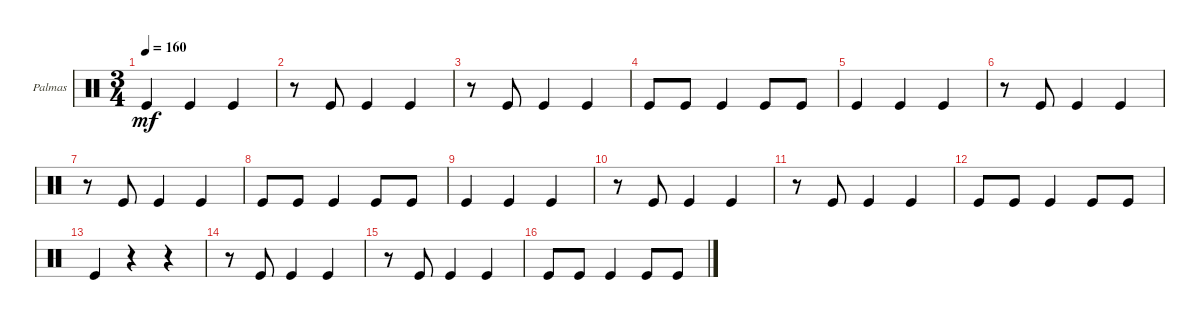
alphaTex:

\defaultSystemsLayout 4
\bracketExtendMode groupsimilarinstruments
\firstSystemTrackNameOrientation horizontal
\otherSystemsTrackNameOrientation horizontal
\track ("Palmas" "Palmas") {instrument percussion}
\staff {score}
\articulation defaults
\ts (3 4)
\tempo 160
\clef neutral
\ks c "Kick (hit)".4{dy mf} "Kick (hit)".4 "Kick (hit)".4
|
r.8 "Kick (hit)".8 "Kick (hit)".4 "Kick (hit)".4 |
r.8 "Kick (hit)".8 "Kick (hit)".4 "Kick (hit)".4 |
"Kick (hit)".8 "Kick (hit)".8 "Kick (hit)".4 "Kick (hit)".8 "Kick (hit)".8 |
"Kick (hit)".4 "Kick (hit)".4 "Kick (hit)".4 |
r.8 "Kick (hit)".8 "Kick (hit)".4 "Kick (hit)".4 |
r.8 "Kick (hit)".8 "Kick (hit)".4 "Kick (hit)".4 |
"Kick (hit)".8 "Kick (hit)".8 "Kick (hit)".4 "Kick (hit)".8 "Kick (hit)".8 |
"Kick (hit)".4 "Kick (hit)".4 "Kick (hit)".4 |
r.8 "Kick (hit)".8 "Kick (hit)".4 "Kick (hit)".4 |
r.8 "Kick (hit)".8 "Kick (hit)".4 "Kick (hit)".4 |
"Kick (hit)".8 "Kick (hit)".8 "Kick (hit)".4 "Kick (hit)".8 "Kick (hit)".8 |
"Kick (hit)".4 r.4 r.4 |
r.8 "Kick (hit)".8 "Kick (hit)".4 "Kick (hit)".4 |
r.8 "Kick (hit)".8 "Kick (hit)".4 "Kick (hit)".4 |
"Kick (hit)".8 "Kick (hit)".8 "Kick (hit)".4 "Kick (hit)".8 "Kick (hit)".8
